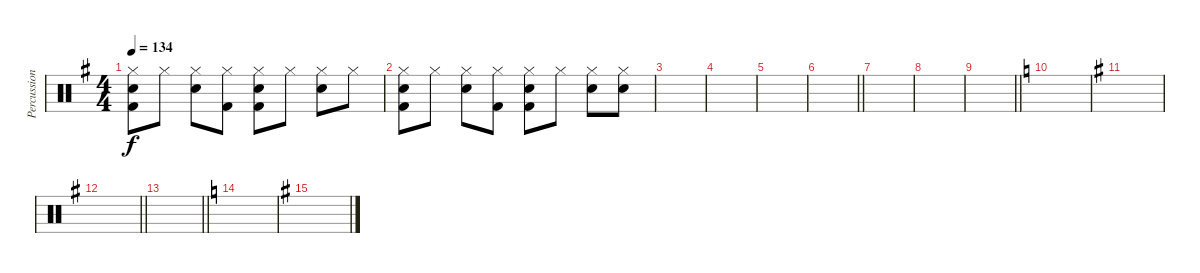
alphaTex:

\track ("Percussion" "Percussion") {instrument percussion}
\staff {score}
\articulation defaults
\ts (4 4)
\tempo 134
\clef neutral
\ks g
("Hi-Hat (closed)" "Electric Snare (hit)" "Kick (hit) 2").8{dy f} "Hi-Hat (closed)".8 ("Hi-Hat (closed)" "Electric Snare (hit)").8 ("Hi-Hat (closed)" "Kick (hit) 2").8 ("Hi-Hat (closed)" "Electric Snare (hit)" "Kick (hit) 2").8 "Hi-Hat (closed)".8 ("Hi-Hat (closed)" "Electric Snare (hit)").8 "Hi-Hat (closed)".8 |
("Hi-Hat (closed)" "Electric Snare (hit)" "Kick (hit) 2").8 "Hi-Hat (closed)".8 ("Hi-Hat (closed)" "Electric Snare (hit)").8 ("Hi-Hat (closed)" "Kick (hit) 2").8 ("Hi-Hat (closed)" "Electric Snare (hit)" "Kick (hit) 2").8 "Hi-Hat (closed)".8 ("Hi-Hat (closed)" "Electric Snare (hit)").8 ("Hi-Hat (closed)" "Electric Snare (hit)").8 |
|
|
|
\barLineRight lightlight
|
|
|
\barLineRight lightlight
|
\ks c
|
\ks g
|
\barLineRight lightlight
|
\barLineRight lightlight
|
\ks c
|
\ks g
